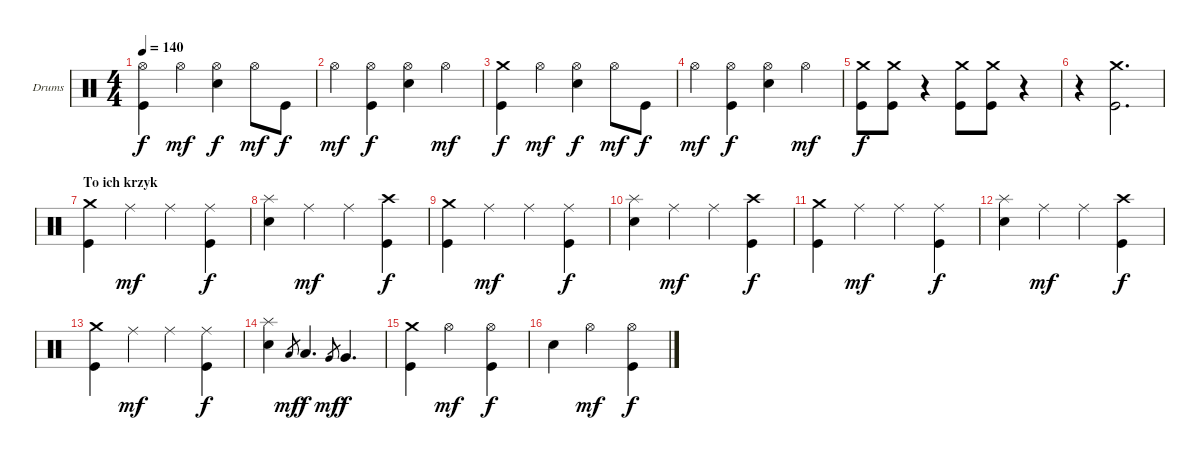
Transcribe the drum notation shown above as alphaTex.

\bracketExtendMode groupsimilarinstruments
\firstSystemTrackNameOrientation horizontal
\otherSystemsTrackNameOrientation horizontal
\track ("Drumkit" "Drums") {instrument percussion}
\staff {score}
\articulation defaults
\ts (4 4)
\tempo 140
\clef neutral
\ks c
("Kick (hit)" "Hi-Hat (open)").4{dy f} "Hi-Hat (open)".4{dy mf} ("Snare (hit) 2" "Hi-Hat (open)").4{dy f} "Hi-Hat (open)".8{dy mf} "Kick (hit)".8{dy f} |
"Hi-Hat (open)".4{dy mf} ("Kick (hit)" "Hi-Hat (open)").4{dy f} ("Snare (hit) 2" "Hi-Hat (open)").4 "Hi-Hat (open)".4{dy mf} |
("Kick (hit)" "Crash medium (hit)").4{dy f} "Hi-Hat (open)".4{dy mf} ("Snare (hit) 2" "Hi-Hat (open)").4{dy f} "Hi-Hat (open)".8{dy mf} "Kick (hit)".8{dy f} |
"Hi-Hat (open)".4{dy mf} ("Kick (hit)" "Hi-Hat (open)").4{dy f} ("Snare (hit) 2" "Hi-Hat (open)").4 "Hi-Hat (open)".4{dy mf} |
("Kick (hit)" "Crash medium (hit)").8{dy f} ("Kick (hit)" "Crash medium (hit)").8 r.4 ("Kick (hit)" "Crash medium (hit)").8 ("Kick (hit)" "Crash medium (hit)").8 r.4 |
r.4 ("Kick (hit)" "Crash medium (hit)").2{d} |
\section ("" "To ich krzyk")
("Kick (hit)" "Crash medium (hit)").4 "Ride (middle)".4{dy mf} "Ride (middle)".4 ("Kick (hit)" "Ride (middle)").4{dy f} |
("Snare (hit) 2" "Splash (hit)").4 "Ride (middle)".4{dy mf} "Ride (middle)".4 ("Kick (hit)" "Crash high (hit)").4{dy f} |
("Kick (hit)" "Crash medium (hit)").4 "Ride (middle)".4{dy mf} "Ride (middle)".4 ("Kick (hit)" "Ride (middle)").4{dy f} |
("Snare (hit) 2" "Splash (hit)").4 "Ride (middle)".4{dy mf} "Ride (middle)".4 ("Kick (hit)" "Crash high (hit)").4{dy f} |
("Kick (hit)" "Crash medium (hit)").4 "Ride (middle)".4{dy mf} "Ride (middle)".4 ("Kick (hit)" "Ride (middle)").4{dy f} |
("Snare (hit) 2" "Splash (hit)").4 "Ride (middle)".4{dy mf} "Ride (middle)".4 ("Kick (hit)" "Crash high (hit)").4{dy f} |
("Kick (hit)" "Crash medium (hit)").4 "Ride (middle)".4{dy mf} "Ride (middle)".4 ("Kick (hit)" "Ride (middle)").4{dy f} |
("Snare (hit) 2" "Splash (hit)").4 "Low Tom (hit)".8{gr dy mf} "Low Tom (hit)".4{d dy f} "Very Low Tom (hit)".8{gr dy mf} "Very Low Tom (hit)".4{d dy f} |
("Kick (hit)" "Crash medium (hit)").4 "Hi-Hat (open)".2{dy mf} ("Kick (hit)" "Hi-Hat (open)").4{dy f} |
"Snare (hit) 2".4 "Hi-Hat (open)".2{dy mf} ("Kick (hit)" "Hi-Hat (open)").4{dy f}
